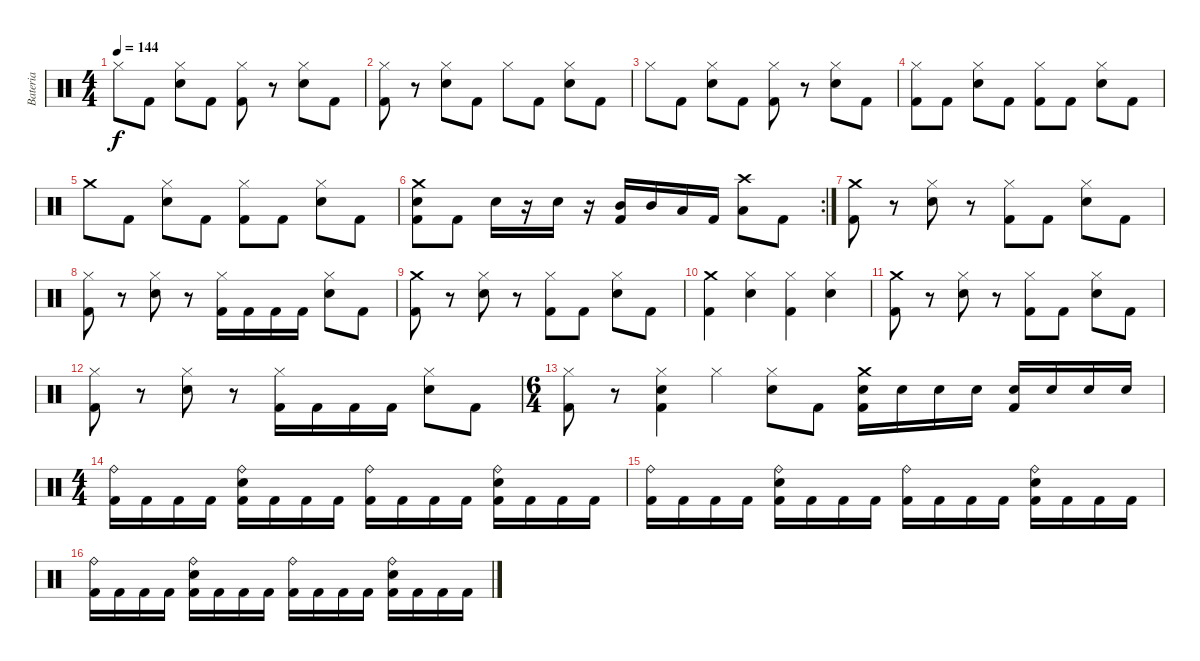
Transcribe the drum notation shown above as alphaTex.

\track ("Bateria" "Bateria") {instrument percussion}
\staff {score}
\articulation defaults
\ts (4 4)
\tempo 144
\clef neutral
\ks c "Hi-Hat (closed)".8{dy f} "Kick (hit) 2".8
("Hi-Hat (closed)" "Electric Snare (hit)").8 "Kick (hit) 2".8 ("Hi-Hat (closed)" "Kick (hit) 2").8 r.8 ("Hi-Hat (closed)" "Electric Snare (hit)").8 "Kick (hit) 2".8 |
("Hi-Hat (closed)" "Kick (hit) 2").8 r.8 ("Hi-Hat (closed)" "Electric Snare (hit)").8 "Kick (hit) 2".8 "Hi-Hat (closed)".8 "Kick (hit) 2".8 ("Hi-Hat (closed)" "Electric Snare (hit)").8 "Kick (hit) 2".8 |
"Hi-Hat (closed)".8 "Kick (hit) 2".8 ("Hi-Hat (closed)" "Electric Snare (hit)").8 "Kick (hit) 2".8 ("Hi-Hat (closed)" "Kick (hit) 2").8 r.8 ("Hi-Hat (closed)" "Electric Snare (hit)").8 "Kick (hit) 2".8 |
("Hi-Hat (closed)" "Kick (hit) 2").8 "Kick (hit) 2".8 ("Hi-Hat (closed)" "Electric Snare (hit)").8 "Kick (hit) 2".8 ("Hi-Hat (closed)" "Kick (hit) 2").8 "Kick (hit) 2".8 ("Hi-Hat (closed)" "Electric Snare (hit)").8 "Kick (hit) 2".8 |
"Crash medium (hit)".8 "Kick (hit) 2".8 ("Hi-Hat (closed)" "Electric Snare (hit)").8 "Kick (hit) 2".8 ("Hi-Hat (closed)" "Kick (hit) 2").8 "Kick (hit) 2".8 ("Hi-Hat (closed)" "Electric Snare (hit)").8 "Kick (hit) 2".8 |
\rc 2
("Crash medium (hit)" "Electric Snare (hit)" "Kick (hit) 2").8 "Kick (hit) 2".8 "Electric Snare (hit)".16 r.16 "Electric Snare (hit)".16 r.16 ("Mid Tom (hit)" "Kick (hit) 2").16 "Mid Tom (hit)".16 "Low Tom (hit)".16 "Kick (hit) 2".16 ("Crash high (hit)" "Low Tom (hit)").8 "Kick (hit) 2".8 |
("Crash medium (hit)" "Kick (hit) 2").8 r.8 ("Hi-Hat (closed)" "Electric Snare (hit)").8 r.8 ("Hi-Hat (closed)" "Kick (hit) 2").8 "Kick (hit) 2".8 ("Hi-Hat (closed)" "Electric Snare (hit)").8 "Kick (hit) 2".8 |
("Hi-Hat (closed)" "Kick (hit) 2").8 r.8 ("Hi-Hat (closed)" "Electric Snare (hit)").8 r.8 ("Hi-Hat (closed)" "Kick (hit) 2").16 "Kick (hit) 2".16 "Kick (hit) 2".16 "Kick (hit) 2".16 ("Hi-Hat (closed)" "Electric Snare (hit)").8 "Kick (hit) 2".8 |
("Crash medium (hit)" "Kick (hit) 2").8 r.8 ("Hi-Hat (closed)" "Electric Snare (hit)").8 r.8 ("Hi-Hat (closed)" "Kick (hit) 2").8 "Kick (hit) 2".8 ("Hi-Hat (closed)" "Electric Snare (hit)").8 "Kick (hit) 2".8 |
("Crash medium (hit)" "Kick (hit) 2").4 ("Hi-Hat (closed)" "Electric Snare (hit)").4 ("Hi-Hat (closed)" "Kick (hit) 2").4 ("Hi-Hat (closed)" "Electric Snare (hit)").4 |
("Crash medium (hit)" "Kick (hit) 2").8 r.8 ("Hi-Hat (closed)" "Electric Snare (hit)").8 r.8 ("Hi-Hat (closed)" "Kick (hit) 2").8 "Kick (hit) 2".8 ("Hi-Hat (closed)" "Electric Snare (hit)").8 "Kick (hit) 2".8 |
("Hi-Hat (closed)" "Kick (hit) 2").8 r.8 ("Hi-Hat (closed)" "Electric Snare (hit)").8 r.8 ("Hi-Hat (closed)" "Kick (hit) 2").16 "Kick (hit) 2".16 "Kick (hit) 2".16 "Kick (hit) 2".16 ("Hi-Hat (closed)" "Electric Snare (hit)").8 "Kick (hit) 2".8 |
\ts (6 4)
("Hi-Hat (closed)" "Kick (hit) 2").8 r.8 ("Hi-Hat (closed)" "Electric Snare (hit)" "Kick (hit) 2").4 "Hi-Hat (closed)".4 ("Hi-Hat (closed)" "Electric Snare (hit)").8 "Kick (hit) 2".8 ("Crash medium (hit)" "Electric Snare (hit)" "Kick (hit) 2").16 "Electric Snare (hit)".16 "Electric Snare (hit)".16 "Electric Snare (hit)".16 ("Electric Snare (hit)" "Kick (hit) 2").16 "Electric Snare (hit)".16 "Electric Snare (hit)".16 "Electric Snare (hit)".16 |
\ts (4 4)
("Ride (bell)" "Kick (hit) 2").16 "Kick (hit) 2".16 "Kick (hit) 2".16 "Kick (hit) 2".16 ("Ride (bell)" "Electric Snare (hit)" "Kick (hit) 2").16 "Kick (hit) 2".16 "Kick (hit) 2".16 "Kick (hit) 2".16 ("Ride (bell)" "Kick (hit) 2").16 "Kick (hit) 2".16 "Kick (hit) 2".16 "Kick (hit) 2".16 ("Ride (bell)" "Electric Snare (hit)" "Kick (hit) 2").16 "Kick (hit) 2".16 "Kick (hit) 2".16 "Kick (hit) 2".16 |
("Ride (bell)" "Kick (hit) 2").16 "Kick (hit) 2".16 "Kick (hit) 2".16 "Kick (hit) 2".16 ("Ride (bell)" "Electric Snare (hit)" "Kick (hit) 2").16 "Kick (hit) 2".16 "Kick (hit) 2".16 "Kick (hit) 2".16 ("Ride (bell)" "Kick (hit) 2").16 "Kick (hit) 2".16 "Kick (hit) 2".16 "Kick (hit) 2".16 ("Ride (bell)" "Electric Snare (hit)" "Kick (hit) 2").16 "Kick (hit) 2".16 "Kick (hit) 2".16 "Kick (hit) 2".16 |
("Ride (bell)" "Kick (hit) 2").16 "Kick (hit) 2".16 "Kick (hit) 2".16 "Kick (hit) 2".16 ("Ride (bell)" "Electric Snare (hit)" "Kick (hit) 2").16 "Kick (hit) 2".16 "Kick (hit) 2".16 "Kick (hit) 2".16 ("Ride (bell)" "Kick (hit) 2").16 "Kick (hit) 2".16 "Kick (hit) 2".16 "Kick (hit) 2".16 ("Ride (bell)" "Electric Snare (hit)" "Kick (hit) 2").16 "Kick (hit) 2".16 "Kick (hit) 2".16 "Kick (hit) 2".16
